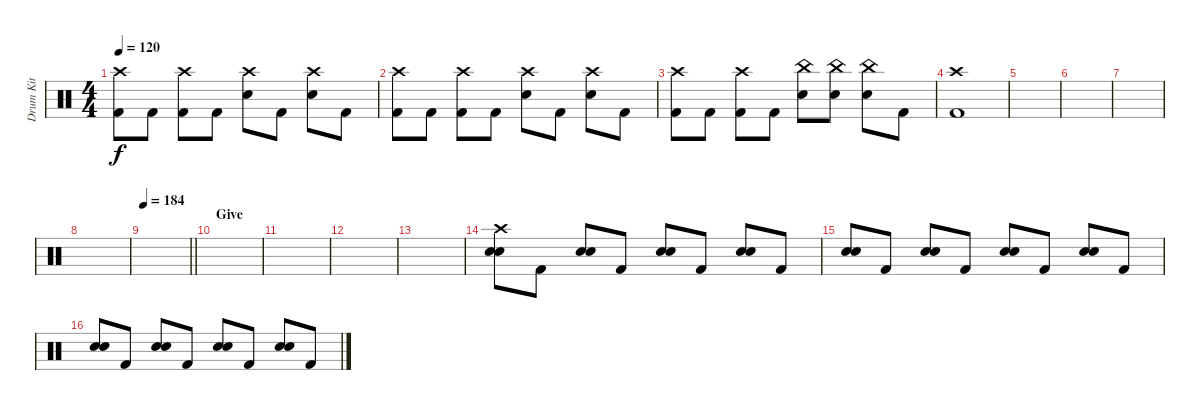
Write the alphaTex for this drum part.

\track ("Drum Kit" "Drum Kit") {instrument percussion}
\staff {score}
\articulation defaults
\ts (4 4)
\tempo 120
\clef neutral
\ks c
("Crash high (hit)" "Kick (hit) 2").8{dy f} "Kick (hit) 2".8 ("Crash high (hit)" "Kick (hit) 2").8 "Kick (hit) 2".8 ("Crash high (hit)" "Snare (hit) 2").8 "Kick (hit) 2".8 ("Crash high (hit)" "Snare (hit) 2").8 "Kick (hit) 2".8 |
("Crash high (hit)" "Kick (hit) 2").8 "Kick (hit) 2".8 ("Crash high (hit)" "Kick (hit) 2").8 "Kick (hit) 2".8 ("Crash high (hit)" "Snare (hit) 2").8 "Kick (hit) 2".8 ("Crash high (hit)" "Snare (hit) 2").8 "Kick (hit) 2".8 |
("Crash high (hit)" "Kick (hit) 2").8 "Kick (hit) 2".8 ("Crash high (hit)" "Kick (hit) 2").8 "Kick (hit) 2".8 ("China (hit)" "Snare (hit) 2").8 ("China (hit)" "Snare (hit) 2").8 ("China (hit)" "Snare (hit) 2").8 "Kick (hit) 2".8 |
("Crash high (hit)" "Kick (hit) 2").1 |
|
|
|
|
\tempo 184
\barLineRight lightlight
|
\section ("" "Give")
|
|
|
|
("Crash high (hit)" "Electric Snare (hit)" "Snare (hit) 2").8 "Kick (hit) 2".8 ("Electric Snare (hit)" "Snare (hit) 2").8 "Kick (hit) 2".8 ("Electric Snare (hit)" "Snare (hit) 2").8 "Kick (hit) 2".8 ("Electric Snare (hit)" "Snare (hit) 2").8 "Kick (hit) 2".8 |
("Electric Snare (hit)" "Snare (hit) 2").8 "Kick (hit) 2".8 ("Electric Snare (hit)" "Snare (hit) 2").8 "Kick (hit) 2".8 ("Electric Snare (hit)" "Snare (hit) 2").8 "Kick (hit) 2".8 ("Electric Snare (hit)" "Snare (hit) 2").8 "Kick (hit) 2".8 |
("Electric Snare (hit)" "Snare (hit) 2").8 "Kick (hit) 2".8 ("Electric Snare (hit)" "Snare (hit) 2").8 "Kick (hit) 2".8 ("Electric Snare (hit)" "Snare (hit) 2").8 "Kick (hit) 2".8 ("Electric Snare (hit)" "Snare (hit) 2").8 "Kick (hit) 2".8
